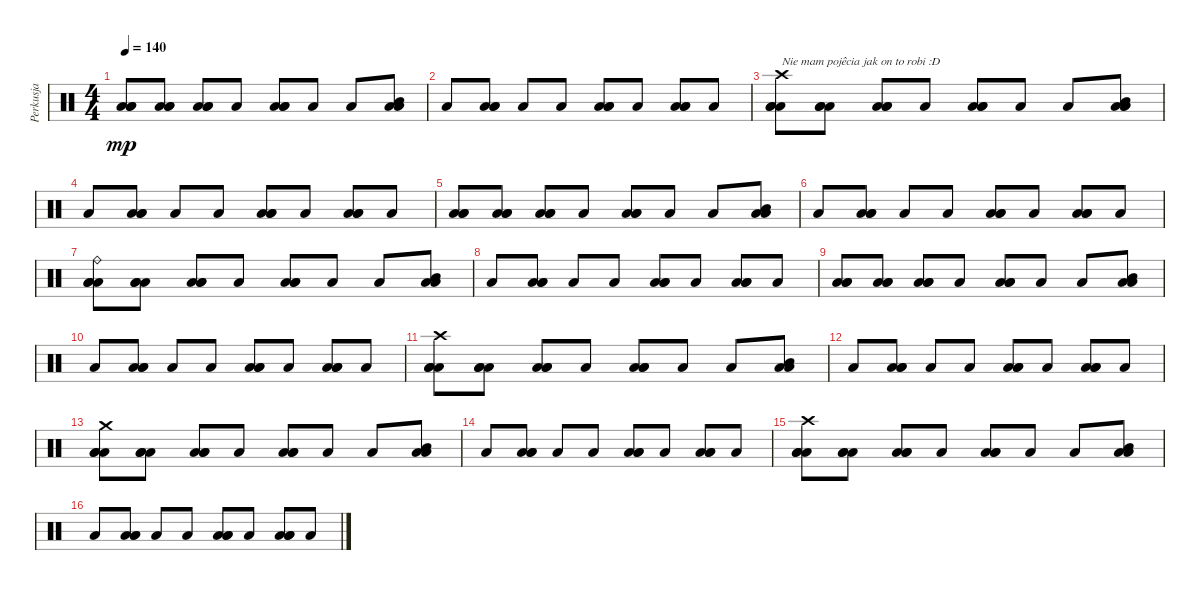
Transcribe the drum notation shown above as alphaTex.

\track ("Perkusja" "Perkusja") {instrument percussion}
\staff {score}
\articulation defaults
\ts (4 4)
\tempo 140
\clef neutral
\ks c
("Low Tom (hit)" "Low Floor Tom (hit)" "Low Floor Tom (hit)").8{dy mp} ("Low Tom (hit)" "Low Floor Tom (hit)" "Low Floor Tom (hit)").8 ("Low Tom (hit)" "Low Floor Tom (hit)" "Low Floor Tom (hit)").8 "Low Floor Tom (hit)".8 ("Low Tom (hit)" "Low Floor Tom (hit)" "Low Floor Tom (hit)").8 "Low Floor Tom (hit)".8 "Low Floor Tom (hit)".8 ("Mid Tom (hit)" "Low Floor Tom (hit)" "Low Floor Tom (hit)").8 |
"Low Floor Tom (hit)".8 ("Low Tom (hit)" "Low Floor Tom (hit)" "Low Floor Tom (hit)").8 "Low Floor Tom (hit)".8 "Low Floor Tom (hit)".8 ("Low Tom (hit)" "Low Floor Tom (hit)" "Low Floor Tom (hit)").8 "Low Floor Tom (hit)".8 ("Low Tom (hit)" "Low Floor Tom (hit)" "Low Floor Tom (hit)").8 "Low Floor Tom (hit)".8 |
("Crash high (hit)" "Low Tom (hit)" "Low Floor Tom (hit)" "Low Floor Tom (hit)").8{txt "Nie mam pojêcia jak on to robi :D"} ("Low Tom (hit)" "Low Floor Tom (hit)" "Low Floor Tom (hit)").8 ("Low Tom (hit)" "Low Floor Tom (hit)" "Low Floor Tom (hit)").8 "Low Floor Tom (hit)".8 ("Low Tom (hit)" "Low Floor Tom (hit)" "Low Floor Tom (hit)").8 "Low Floor Tom (hit)".8 "Low Floor Tom (hit)".8 ("Mid Tom (hit)" "Low Tom (hit)" "Low Floor Tom (hit)" "Low Floor Tom (hit)").8 |
"Low Floor Tom (hit)".8 ("Low Tom (hit)" "Low Floor Tom (hit)" "Low Floor Tom (hit)").8 "Low Floor Tom (hit)".8 "Low Floor Tom (hit)".8 ("Low Tom (hit)" "Low Floor Tom (hit)" "Low Floor Tom (hit)").8 "Low Floor Tom (hit)".8 ("Low Tom (hit)" "Low Floor Tom (hit)" "Low Floor Tom (hit)").8 "Low Floor Tom (hit)".8 |
("Low Tom (hit)" "Low Floor Tom (hit)" "Low Floor Tom (hit)").8 ("Low Tom (hit)" "Low Floor Tom (hit)" "Low Floor Tom (hit)").8 ("Low Tom (hit)" "Low Floor Tom (hit)" "Low Floor Tom (hit)").8 "Low Floor Tom (hit)".8 ("Low Tom (hit)" "Low Floor Tom (hit)" "Low Floor Tom (hit)").8 "Low Floor Tom (hit)".8 "Low Floor Tom (hit)".8 ("Mid Tom (hit)" "Low Floor Tom (hit)" "Low Floor Tom (hit)").8 |
"Low Floor Tom (hit)".8 ("Low Tom (hit)" "Low Floor Tom (hit)" "Low Floor Tom (hit)").8 "Low Floor Tom (hit)".8 "Low Floor Tom (hit)".8 ("Low Tom (hit)" "Low Floor Tom (hit)" "Low Floor Tom (hit)").8 "Low Floor Tom (hit)".8 ("Low Tom (hit)" "Low Floor Tom (hit)" "Low Floor Tom (hit)").8 "Low Floor Tom (hit)".8 |
("Ride (bell)" "Low Tom (hit)" "Low Floor Tom (hit)" "Low Floor Tom (hit)").8 ("Low Tom (hit)" "Low Floor Tom (hit)" "Low Floor Tom (hit)").8 ("Low Tom (hit)" "Low Floor Tom (hit)" "Low Floor Tom (hit)").8 "Low Floor Tom (hit)".8 ("Low Tom (hit)" "Low Floor Tom (hit)" "Low Floor Tom (hit)").8 "Low Floor Tom (hit)".8 "Low Floor Tom (hit)".8 ("Mid Tom (hit)" "Low Floor Tom (hit)" "Low Floor Tom (hit)").8 |
"Low Floor Tom (hit)".8 ("Low Tom (hit)" "Low Floor Tom (hit)" "Low Floor Tom (hit)").8 "Low Floor Tom (hit)".8 "Low Floor Tom (hit)".8 ("Low Tom (hit)" "Low Floor Tom (hit)" "Low Floor Tom (hit)").8 "Low Floor Tom (hit)".8 ("Low Tom (hit)" "Low Floor Tom (hit)" "Low Floor Tom (hit)").8 "Low Floor Tom (hit)".8 |
("Low Tom (hit)" "Low Floor Tom (hit)" "Low Floor Tom (hit)").8 ("Low Tom (hit)" "Low Floor Tom (hit)" "Low Floor Tom (hit)").8 ("Low Tom (hit)" "Low Floor Tom (hit)" "Low Floor Tom (hit)").8 "Low Floor Tom (hit)".8 ("Low Tom (hit)" "Low Floor Tom (hit)" "Low Floor Tom (hit)").8 "Low Floor Tom (hit)".8 "Low Floor Tom (hit)".8 ("Mid Tom (hit)" "Low Floor Tom (hit)" "Low Floor Tom (hit)").8 |
"Low Floor Tom (hit)".8 ("Low Tom (hit)" "Low Floor Tom (hit)" "Low Floor Tom (hit)").8 "Low Floor Tom (hit)".8 "Low Floor Tom (hit)".8 ("Low Tom (hit)" "Low Floor Tom (hit)" "Low Floor Tom (hit)").8 "Low Floor Tom (hit)".8 ("Low Tom (hit)" "Low Floor Tom (hit)" "Low Floor Tom (hit)").8 "Low Floor Tom (hit)".8 |
("Crash high (hit)" "Low Tom (hit)" "Low Floor Tom (hit)" "Low Floor Tom (hit)").8 ("Low Tom (hit)" "Low Floor Tom (hit)" "Low Floor Tom (hit)").8 ("Low Tom (hit)" "Low Floor Tom (hit)" "Low Floor Tom (hit)").8 "Low Floor Tom (hit)".8 ("Low Tom (hit)" "Low Floor Tom (hit)" "Low Floor Tom (hit)").8 "Low Floor Tom (hit)".8 "Low Floor Tom (hit)".8 ("Mid Tom (hit)" "Low Floor Tom (hit)" "Low Floor Tom (hit)").8 |
"Low Floor Tom (hit)".8 ("Low Tom (hit)" "Low Floor Tom (hit)" "Low Floor Tom (hit)").8 "Low Floor Tom (hit)".8 "Low Floor Tom (hit)".8 ("Low Tom (hit)" "Low Floor Tom (hit)" "Low Floor Tom (hit)").8 "Low Floor Tom (hit)".8 ("Low Tom (hit)" "Low Floor Tom (hit)" "Low Floor Tom (hit)").8 "Low Floor Tom (hit)".8 |
("Crash medium (hit)" "Low Tom (hit)" "Low Floor Tom (hit)" "Low Floor Tom (hit)").8 ("Low Tom (hit)" "Low Floor Tom (hit)" "Low Floor Tom (hit)").8 ("Low Tom (hit)" "Low Floor Tom (hit)" "Low Floor Tom (hit)").8 "Low Floor Tom (hit)".8 ("Low Tom (hit)" "Low Floor Tom (hit)" "Low Floor Tom (hit)").8 "Low Floor Tom (hit)".8 "Low Floor Tom (hit)".8 ("Mid Tom (hit)" "Low Floor Tom (hit)" "Low Floor Tom (hit)").8 |
"Low Floor Tom (hit)".8 ("Low Tom (hit)" "Low Floor Tom (hit)" "Low Floor Tom (hit)").8 "Low Floor Tom (hit)".8 "Low Floor Tom (hit)".8 ("Low Tom (hit)" "Low Floor Tom (hit)" "Low Floor Tom (hit)").8 "Low Floor Tom (hit)".8 ("Low Tom (hit)" "Low Floor Tom (hit)" "Low Floor Tom (hit)").8 "Low Floor Tom (hit)".8 |
("Crash high (hit)" "Low Tom (hit)" "Low Floor Tom (hit)" "Low Floor Tom (hit)").8 ("Low Tom (hit)" "Low Floor Tom (hit)" "Low Floor Tom (hit)").8 ("Low Tom (hit)" "Low Floor Tom (hit)" "Low Floor Tom (hit)").8 "Low Floor Tom (hit)".8 ("Low Tom (hit)" "Low Floor Tom (hit)" "Low Floor Tom (hit)").8 "Low Floor Tom (hit)".8 "Low Floor Tom (hit)".8 ("Mid Tom (hit)" "Low Floor Tom (hit)" "Low Floor Tom (hit)").8 |
"Low Floor Tom (hit)".8 ("Low Tom (hit)" "Low Floor Tom (hit)" "Low Floor Tom (hit)").8 "Low Floor Tom (hit)".8 "Low Floor Tom (hit)".8 ("Low Tom (hit)" "Low Floor Tom (hit)" "Low Floor Tom (hit)").8 "Low Floor Tom (hit)".8 ("Low Tom (hit)" "Low Floor Tom (hit)" "Low Floor Tom (hit)").8 "Low Floor Tom (hit)".8
